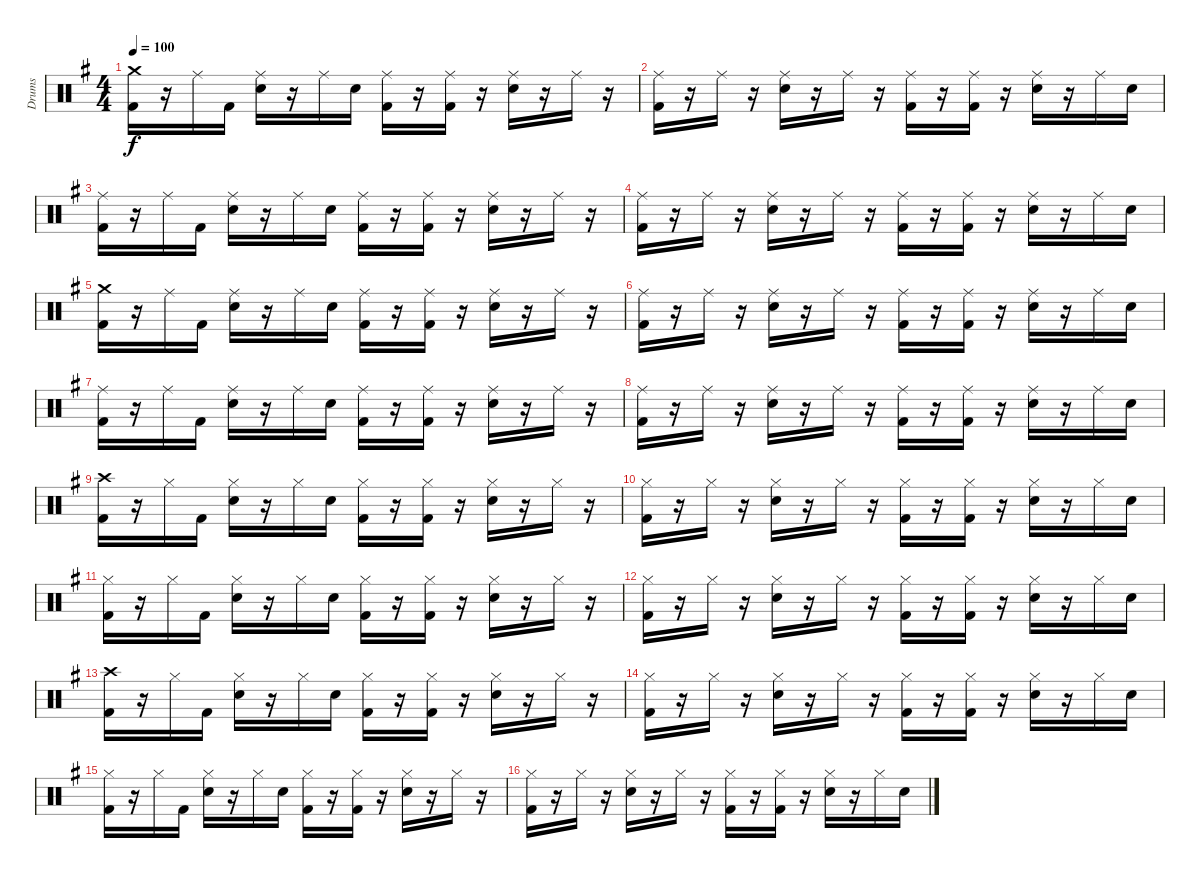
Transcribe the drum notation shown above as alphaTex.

\track ("Drums" "Drums") {instrument percussion}
\staff {score}
\articulation defaults
\ts (4 4)
\tempo 100
\clef neutral
\ks eminor
("Crash medium (hit)" "Kick (hit) 2").16{dy f} r.16 "Ride (middle)".16 "Kick (hit) 2".16 ("Ride (middle)" "Electric Snare (hit)").16 r.16 "Ride (middle)".16 "Electric Snare (hit)".16 ("Ride (middle)" "Kick (hit) 2").16 r.16 ("Ride (middle)" "Kick (hit) 2").16 r.16 ("Ride (middle)" "Electric Snare (hit)").16 r.16 "Ride (middle)".16 r.16 |
("Ride (middle)" "Kick (hit) 2").16 r.16 "Ride (middle)".16 r.16 ("Ride (middle)" "Electric Snare (hit)").16 r.16 "Ride (middle)".16 r.16 ("Ride (middle)" "Kick (hit) 2").16 r.16 ("Ride (middle)" "Kick (hit) 2").16 r.16 ("Ride (middle)" "Electric Snare (hit)").16 r.16 "Ride (middle)".16 "Electric Snare (hit)".16 |
("Ride (middle)" "Kick (hit) 2").16 r.16 "Ride (middle)".16 "Kick (hit) 2".16 ("Ride (middle)" "Electric Snare (hit)").16 r.16 "Ride (middle)".16 "Electric Snare (hit)".16 ("Ride (middle)" "Kick (hit) 2").16 r.16 ("Ride (middle)" "Kick (hit) 2").16 r.16 ("Ride (middle)" "Electric Snare (hit)").16 r.16 "Ride (middle)".16 r.16 |
("Ride (middle)" "Kick (hit) 2").16 r.16 "Ride (middle)".16 r.16 ("Ride (middle)" "Electric Snare (hit)").16 r.16 "Ride (middle)".16 r.16 ("Ride (middle)" "Kick (hit) 2").16 r.16 ("Ride (middle)" "Kick (hit) 2").16 r.16 ("Ride (middle)" "Electric Snare (hit)").16 r.16 "Ride (middle)".16 "Electric Snare (hit)".16 |
("Crash medium (hit)" "Kick (hit) 2").16 r.16 "Ride (middle)".16 "Kick (hit) 2".16 ("Ride (middle)" "Electric Snare (hit)").16 r.16 "Ride (middle)".16 "Electric Snare (hit)".16 ("Ride (middle)" "Kick (hit) 2").16 r.16 ("Ride (middle)" "Kick (hit) 2").16 r.16 ("Ride (middle)" "Electric Snare (hit)").16 r.16 "Ride (middle)".16 r.16 |
("Ride (middle)" "Kick (hit) 2").16 r.16 "Ride (middle)".16 r.16 ("Ride (middle)" "Electric Snare (hit)").16 r.16 "Ride (middle)".16 r.16 ("Ride (middle)" "Kick (hit) 2").16 r.16 ("Ride (middle)" "Kick (hit) 2").16 r.16 ("Ride (middle)" "Electric Snare (hit)").16 r.16 "Ride (middle)".16 "Electric Snare (hit)".16 |
("Ride (middle)" "Kick (hit) 2").16 r.16 "Ride (middle)".16 "Kick (hit) 2".16 ("Ride (middle)" "Electric Snare (hit)").16 r.16 "Ride (middle)".16 "Electric Snare (hit)".16 ("Ride (middle)" "Kick (hit) 2").16 r.16 ("Ride (middle)" "Kick (hit) 2").16 r.16 ("Ride (middle)" "Electric Snare (hit)").16 r.16 "Ride (middle)".16 r.16 |
("Ride (middle)" "Kick (hit) 2").16 r.16 "Ride (middle)".16 r.16 ("Ride (middle)" "Electric Snare (hit)").16 r.16 "Ride (middle)".16 r.16 ("Ride (middle)" "Kick (hit) 2").16 r.16 ("Ride (middle)" "Kick (hit) 2").16 r.16 ("Ride (middle)" "Electric Snare (hit)").16 r.16 "Ride (middle)".16 "Electric Snare (hit)".16 |
("Crash high (hit)" "Kick (hit) 2").16 r.16 "Hi-Hat (closed)".16 "Kick (hit) 2".16 ("Hi-Hat (closed)" "Electric Snare (hit)").16 r.16 "Hi-Hat (closed)".16 "Electric Snare (hit)".16 ("Hi-Hat (closed)" "Kick (hit) 2").16 r.16 ("Hi-Hat (closed)" "Kick (hit) 2").16 r.16 ("Hi-Hat (closed)" "Electric Snare (hit)").16 r.16 "Hi-Hat (closed)".16 r.16 |
("Hi-Hat (closed)" "Kick (hit) 2").16 r.16 "Hi-Hat (closed)".16 r.16 ("Hi-Hat (closed)" "Electric Snare (hit)").16 r.16 "Hi-Hat (closed)".16 r.16 ("Hi-Hat (closed)" "Kick (hit) 2").16 r.16 ("Hi-Hat (closed)" "Kick (hit) 2").16 r.16 ("Hi-Hat (closed)" "Electric Snare (hit)").16 r.16 "Hi-Hat (closed)".16 "Electric Snare (hit)".16 |
("Hi-Hat (closed)" "Kick (hit) 2").16 r.16 "Hi-Hat (closed)".16 "Kick (hit) 2".16 ("Hi-Hat (closed)" "Electric Snare (hit)").16 r.16 "Hi-Hat (closed)".16 "Electric Snare (hit)".16 ("Hi-Hat (closed)" "Kick (hit) 2").16 r.16 ("Hi-Hat (closed)" "Kick (hit) 2").16 r.16 ("Hi-Hat (closed)" "Electric Snare (hit)").16 r.16 "Hi-Hat (closed)".16 r.16 |
("Hi-Hat (closed)" "Kick (hit) 2").16 r.16 "Hi-Hat (closed)".16 r.16 ("Hi-Hat (closed)" "Electric Snare (hit)").16 r.16 "Hi-Hat (closed)".16 r.16 ("Hi-Hat (closed)" "Kick (hit) 2").16 r.16 ("Hi-Hat (closed)" "Kick (hit) 2").16 r.16 ("Hi-Hat (closed)" "Electric Snare (hit)").16 r.16 "Hi-Hat (closed)".16 "Electric Snare (hit)".16 |
("Crash high (hit)" "Kick (hit) 2").16 r.16 "Hi-Hat (closed)".16 "Kick (hit) 2".16 ("Hi-Hat (closed)" "Electric Snare (hit)").16 r.16 "Hi-Hat (closed)".16 "Electric Snare (hit)".16 ("Hi-Hat (closed)" "Kick (hit) 2").16 r.16 ("Hi-Hat (closed)" "Kick (hit) 2").16 r.16 ("Hi-Hat (closed)" "Electric Snare (hit)").16 r.16 "Hi-Hat (closed)".16 r.16 |
("Hi-Hat (closed)" "Kick (hit) 2").16 r.16 "Hi-Hat (closed)".16 r.16 ("Hi-Hat (closed)" "Electric Snare (hit)").16 r.16 "Hi-Hat (closed)".16 r.16 ("Hi-Hat (closed)" "Kick (hit) 2").16 r.16 ("Hi-Hat (closed)" "Kick (hit) 2").16 r.16 ("Hi-Hat (closed)" "Electric Snare (hit)").16 r.16 "Hi-Hat (closed)".16 "Electric Snare (hit)".16 |
("Hi-Hat (closed)" "Kick (hit) 2").16 r.16 "Hi-Hat (closed)".16 "Kick (hit) 2".16 ("Hi-Hat (closed)" "Electric Snare (hit)").16 r.16 "Hi-Hat (closed)".16 "Electric Snare (hit)".16 ("Hi-Hat (closed)" "Kick (hit) 2").16 r.16 ("Hi-Hat (closed)" "Kick (hit) 2").16 r.16 ("Hi-Hat (closed)" "Electric Snare (hit)").16 r.16 "Hi-Hat (closed)".16 r.16 |
("Hi-Hat (closed)" "Kick (hit) 2").16 r.16 "Hi-Hat (closed)".16 r.16 ("Hi-Hat (closed)" "Electric Snare (hit)").16 r.16 "Hi-Hat (closed)".16 r.16 ("Hi-Hat (closed)" "Kick (hit) 2").16 r.16 ("Hi-Hat (closed)" "Kick (hit) 2").16 r.16 ("Hi-Hat (closed)" "Electric Snare (hit)").16 r.16 "Hi-Hat (closed)".16 "Electric Snare (hit)".16
